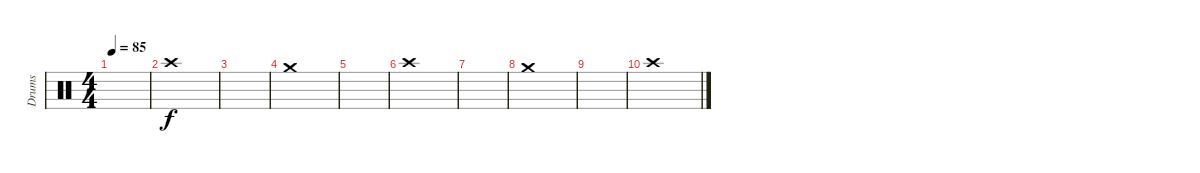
\track ("Drums" "Drums") {instrument percussion}
\staff {score}
\articulation defaults
\ts (4 4)
\tempo 85
\clef neutral
\ks c
|
"Crash high (hit)".1{volume 6} |
|
"Crash medium (hit)".1 |
|
"Crash high (hit)".1 |
|
"Crash medium (hit)".1 |
|
"Crash high (hit)".1
